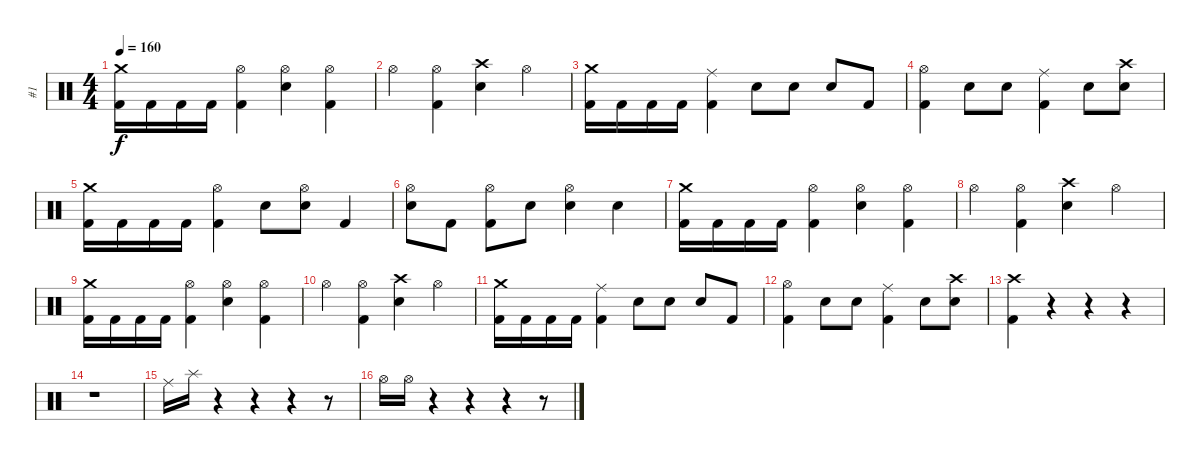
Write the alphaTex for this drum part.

\track ("#1" "#1") {instrument percussion}
\staff {score}
\articulation defaults
\ts (4 4)
\tempo 160
\clef neutral
\ks c
("Kick (hit) 2" "Crash medium (hit)").16{dy f} "Kick (hit) 2".16 "Kick (hit) 2".16 "Kick (hit) 2".16 ("Kick (hit) 2" "Hi-Hat (open)").4 ("Electric Snare (hit)" "Hi-Hat (open)").4 ("Kick (hit) 2" "Hi-Hat (open)").4 |
"Hi-Hat (open)".4 ("Kick (hit) 2" "Hi-Hat (open)").4 ("Electric Snare (hit)" "Crash high (hit)").4 "Hi-Hat (open)".4 |
("Kick (hit) 2" "Crash medium (hit)").16 "Kick (hit) 2".16 "Kick (hit) 2".16 "Kick (hit) 2".16 ("Kick (hit) 2" "Ride (middle)").4 "Electric Snare (hit)".8 "Electric Snare (hit)".8 "Electric Snare (hit)".8 "Kick (hit) 2".8 |
("Kick (hit) 2" "Hi-Hat (open)").4 "Electric Snare (hit)".8 "Electric Snare (hit)".8 ("Kick (hit) 2" "Ride (middle)").4 "Electric Snare (hit)".8 ("Electric Snare (hit)" "Crash high (hit)").8 |
("Kick (hit) 2" "Crash medium (hit)").16 "Kick (hit) 2".16 "Kick (hit) 2".16 "Kick (hit) 2".16 ("Kick (hit) 2" "Hi-Hat (open)").4 "Electric Snare (hit)".8 ("Electric Snare (hit)" "Hi-Hat (open)").8 "Kick (hit) 2".4 |
("Electric Snare (hit)" "Hi-Hat (open)").8 "Kick (hit) 2".8 ("Kick (hit) 2" "Hi-Hat (open)").8 "Electric Snare (hit)".8 ("Electric Snare (hit)" "Hi-Hat (open)").4 "Electric Snare (hit)".4 |
("Kick (hit) 2" "Crash medium (hit)").16 "Kick (hit) 2".16 "Kick (hit) 2".16 "Kick (hit) 2".16 ("Kick (hit) 2" "Hi-Hat (open)").4 ("Electric Snare (hit)" "Hi-Hat (open)").4 ("Kick (hit) 2" "Hi-Hat (open)").4 |
"Hi-Hat (open)".4 ("Kick (hit) 2" "Hi-Hat (open)").4 ("Electric Snare (hit)" "Crash high (hit)").4 "Hi-Hat (open)".4 |
("Kick (hit) 2" "Crash medium (hit)").16 "Kick (hit) 2".16 "Kick (hit) 2".16 "Kick (hit) 2".16 ("Kick (hit) 2" "Hi-Hat (open)").4 ("Electric Snare (hit)" "Hi-Hat (open)").4 ("Kick (hit) 2" "Hi-Hat (open)").4 |
"Hi-Hat (open)".4 ("Kick (hit) 2" "Hi-Hat (open)").4 ("Electric Snare (hit)" "Crash high (hit)").4 "Hi-Hat (open)".4 |
("Kick (hit) 2" "Crash medium (hit)").16 "Kick (hit) 2".16 "Kick (hit) 2".16 "Kick (hit) 2".16 ("Kick (hit) 2" "Ride (middle)").4 "Electric Snare (hit)".8 "Electric Snare (hit)".8 "Electric Snare (hit)".8 "Kick (hit) 2".8 |
("Kick (hit) 2" "Hi-Hat (open)").4 "Electric Snare (hit)".8 "Electric Snare (hit)".8 ("Kick (hit) 2" "Ride (middle)").4 "Electric Snare (hit)".8 ("Electric Snare (hit)" "Crash high (hit)").8 |
("Kick (hit) 2" "Crash high (hit)").4 r.4 r.4 r.4 |
r.1 |
"Ride (middle)".16 "Splash (hit)".16 r.4 r.4 r.4 r.8 |
"Hi-Hat (open)".16 "Hi-Hat (open)".16 r.4 r.4 r.4 r.8
